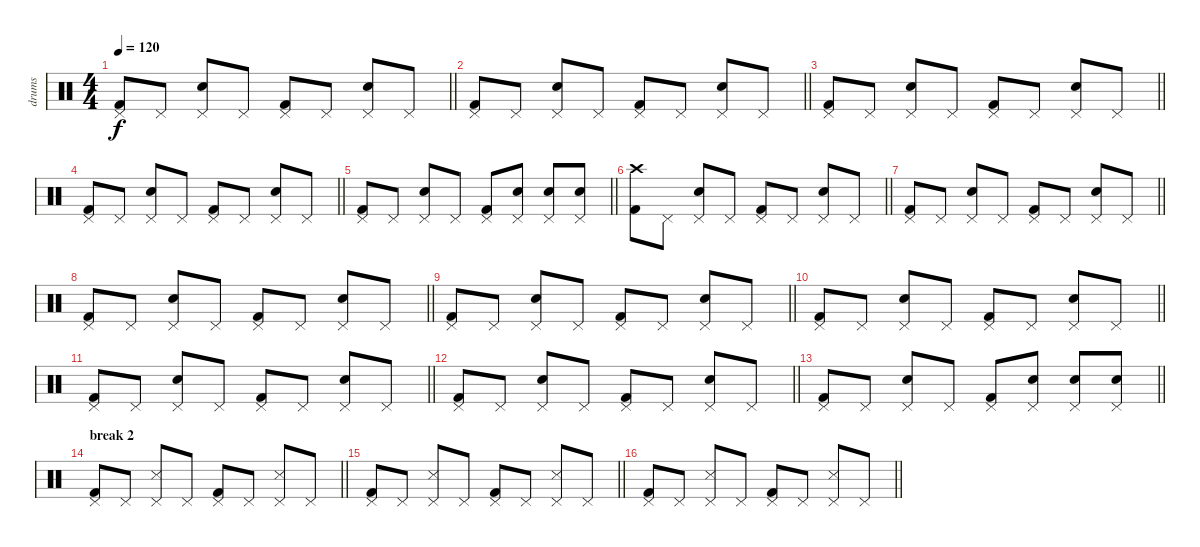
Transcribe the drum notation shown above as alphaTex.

\track ("drums" "drums") {instrument percussion}
\staff {score}
\articulation defaults
\ts (4 4)
\tempo 120
\clef neutral
\barLineRight lightlight
\ks c
("Kick (hit) 2" "Pedal Hi-Hat (hit)").8{dy f} "Pedal Hi-Hat (hit)".8 ("Electric Snare (hit)" "Pedal Hi-Hat (hit)").8 "Pedal Hi-Hat (hit)".8 ("Kick (hit) 2" "Pedal Hi-Hat (hit)").8 "Pedal Hi-Hat (hit)".8 ("Electric Snare (hit)" "Pedal Hi-Hat (hit)").8 "Pedal Hi-Hat (hit)".8 |
\barLineRight lightlight
("Kick (hit) 2" "Pedal Hi-Hat (hit)").8 "Pedal Hi-Hat (hit)".8 ("Electric Snare (hit)" "Pedal Hi-Hat (hit)").8 "Pedal Hi-Hat (hit)".8 ("Kick (hit) 2" "Pedal Hi-Hat (hit)").8 "Pedal Hi-Hat (hit)".8 ("Electric Snare (hit)" "Pedal Hi-Hat (hit)").8 "Pedal Hi-Hat (hit)".8 |
\barLineRight lightlight
("Kick (hit) 2" "Pedal Hi-Hat (hit)").8 "Pedal Hi-Hat (hit)".8 ("Electric Snare (hit)" "Pedal Hi-Hat (hit)").8 "Pedal Hi-Hat (hit)".8 ("Kick (hit) 2" "Pedal Hi-Hat (hit)").8 "Pedal Hi-Hat (hit)".8 ("Electric Snare (hit)" "Pedal Hi-Hat (hit)").8 "Pedal Hi-Hat (hit)".8 |
\barLineRight lightlight
("Kick (hit) 2" "Pedal Hi-Hat (hit)").8 "Pedal Hi-Hat (hit)".8 ("Electric Snare (hit)" "Pedal Hi-Hat (hit)").8 "Pedal Hi-Hat (hit)".8 ("Kick (hit) 2" "Pedal Hi-Hat (hit)").8 "Pedal Hi-Hat (hit)".8 ("Electric Snare (hit)" "Pedal Hi-Hat (hit)").8 "Pedal Hi-Hat (hit)".8 |
\barLineRight lightlight
("Kick (hit) 2" "Pedal Hi-Hat (hit)").8 "Pedal Hi-Hat (hit)".8 ("Electric Snare (hit)" "Pedal Hi-Hat (hit)").8 "Pedal Hi-Hat (hit)".8 ("Kick (hit) 2" "Pedal Hi-Hat (hit)").8 ("Electric Snare (hit)" "Pedal Hi-Hat (hit)").8 ("Electric Snare (hit)" "Pedal Hi-Hat (hit)").8 ("Electric Snare (hit)" "Pedal Hi-Hat (hit)").8 |
\barLineRight lightlight
("Kick (hit) 2" "Crash high (hit)").8 "Pedal Hi-Hat (hit)".8 ("Electric Snare (hit)" "Pedal Hi-Hat (hit)").8 "Pedal Hi-Hat (hit)".8 ("Kick (hit) 2" "Pedal Hi-Hat (hit)").8 "Pedal Hi-Hat (hit)".8 ("Electric Snare (hit)" "Pedal Hi-Hat (hit)").8 "Pedal Hi-Hat (hit)".8 |
\barLineRight lightlight
("Kick (hit) 2" "Pedal Hi-Hat (hit)").8 "Pedal Hi-Hat (hit)".8 ("Electric Snare (hit)" "Pedal Hi-Hat (hit)").8 "Pedal Hi-Hat (hit)".8 ("Kick (hit) 2" "Pedal Hi-Hat (hit)").8 "Pedal Hi-Hat (hit)".8 ("Electric Snare (hit)" "Pedal Hi-Hat (hit)").8 "Pedal Hi-Hat (hit)".8 |
\barLineRight lightlight
("Kick (hit) 2" "Pedal Hi-Hat (hit)").8 "Pedal Hi-Hat (hit)".8 ("Electric Snare (hit)" "Pedal Hi-Hat (hit)").8 "Pedal Hi-Hat (hit)".8 ("Kick (hit) 2" "Pedal Hi-Hat (hit)").8 "Pedal Hi-Hat (hit)".8 ("Electric Snare (hit)" "Pedal Hi-Hat (hit)").8 "Pedal Hi-Hat (hit)".8 |
\barLineRight lightlight
("Kick (hit) 2" "Pedal Hi-Hat (hit)").8 "Pedal Hi-Hat (hit)".8 ("Electric Snare (hit)" "Pedal Hi-Hat (hit)").8 "Pedal Hi-Hat (hit)".8 ("Kick (hit) 2" "Pedal Hi-Hat (hit)").8 "Pedal Hi-Hat (hit)".8 ("Electric Snare (hit)" "Pedal Hi-Hat (hit)").8 "Pedal Hi-Hat (hit)".8 |
\barLineRight lightlight
("Kick (hit) 2" "Pedal Hi-Hat (hit)").8 "Pedal Hi-Hat (hit)".8 ("Electric Snare (hit)" "Pedal Hi-Hat (hit)").8 "Pedal Hi-Hat (hit)".8 ("Kick (hit) 2" "Pedal Hi-Hat (hit)").8 "Pedal Hi-Hat (hit)".8 ("Electric Snare (hit)" "Pedal Hi-Hat (hit)").8 "Pedal Hi-Hat (hit)".8 |
\barLineRight lightlight
("Kick (hit) 2" "Pedal Hi-Hat (hit)").8 "Pedal Hi-Hat (hit)".8 ("Electric Snare (hit)" "Pedal Hi-Hat (hit)").8 "Pedal Hi-Hat (hit)".8 ("Kick (hit) 2" "Pedal Hi-Hat (hit)").8 "Pedal Hi-Hat (hit)".8 ("Electric Snare (hit)" "Pedal Hi-Hat (hit)").8 "Pedal Hi-Hat (hit)".8 |
\barLineRight lightlight
("Kick (hit) 2" "Pedal Hi-Hat (hit)").8 "Pedal Hi-Hat (hit)".8 ("Electric Snare (hit)" "Pedal Hi-Hat (hit)").8 "Pedal Hi-Hat (hit)".8 ("Kick (hit) 2" "Pedal Hi-Hat (hit)").8 "Pedal Hi-Hat (hit)".8 ("Electric Snare (hit)" "Pedal Hi-Hat (hit)").8 "Pedal Hi-Hat (hit)".8 |
\barLineRight lightlight
("Kick (hit) 2" "Pedal Hi-Hat (hit)").8 "Pedal Hi-Hat (hit)".8 ("Electric Snare (hit)" "Pedal Hi-Hat (hit)").8 "Pedal Hi-Hat (hit)".8 ("Kick (hit) 2" "Pedal Hi-Hat (hit)").8 ("Electric Snare (hit)" "Pedal Hi-Hat (hit)").8 ("Electric Snare (hit)" "Pedal Hi-Hat (hit)").8 ("Electric Snare (hit)" "Pedal Hi-Hat (hit)").8 |
\section ("" "break 2")
\barLineRight lightlight
("Kick (hit) 2" "Pedal Hi-Hat (hit)").8{volume 7} "Pedal Hi-Hat (hit)".8 ("Snare (side stick) 3" "Pedal Hi-Hat (hit)").8 "Pedal Hi-Hat (hit)".8 ("Kick (hit) 2" "Pedal Hi-Hat (hit)").8 "Pedal Hi-Hat (hit)".8 ("Snare (side stick) 3" "Pedal Hi-Hat (hit)").8 "Pedal Hi-Hat (hit)".8 |
\barLineRight lightlight
("Kick (hit) 2" "Pedal Hi-Hat (hit)").8 "Pedal Hi-Hat (hit)".8 ("Snare (side stick) 3" "Pedal Hi-Hat (hit)").8 "Pedal Hi-Hat (hit)".8 ("Kick (hit) 2" "Pedal Hi-Hat (hit)").8 "Pedal Hi-Hat (hit)".8 ("Snare (side stick) 3" "Pedal Hi-Hat (hit)").8 "Pedal Hi-Hat (hit)".8 |
\barLineRight lightlight
("Kick (hit) 2" "Pedal Hi-Hat (hit)").8 "Pedal Hi-Hat (hit)".8 ("Snare (side stick) 3" "Pedal Hi-Hat (hit)").8 "Pedal Hi-Hat (hit)".8 ("Kick (hit) 2" "Pedal Hi-Hat (hit)").8 "Pedal Hi-Hat (hit)".8 ("Snare (side stick) 3" "Pedal Hi-Hat (hit)").8 "Pedal Hi-Hat (hit)".8
